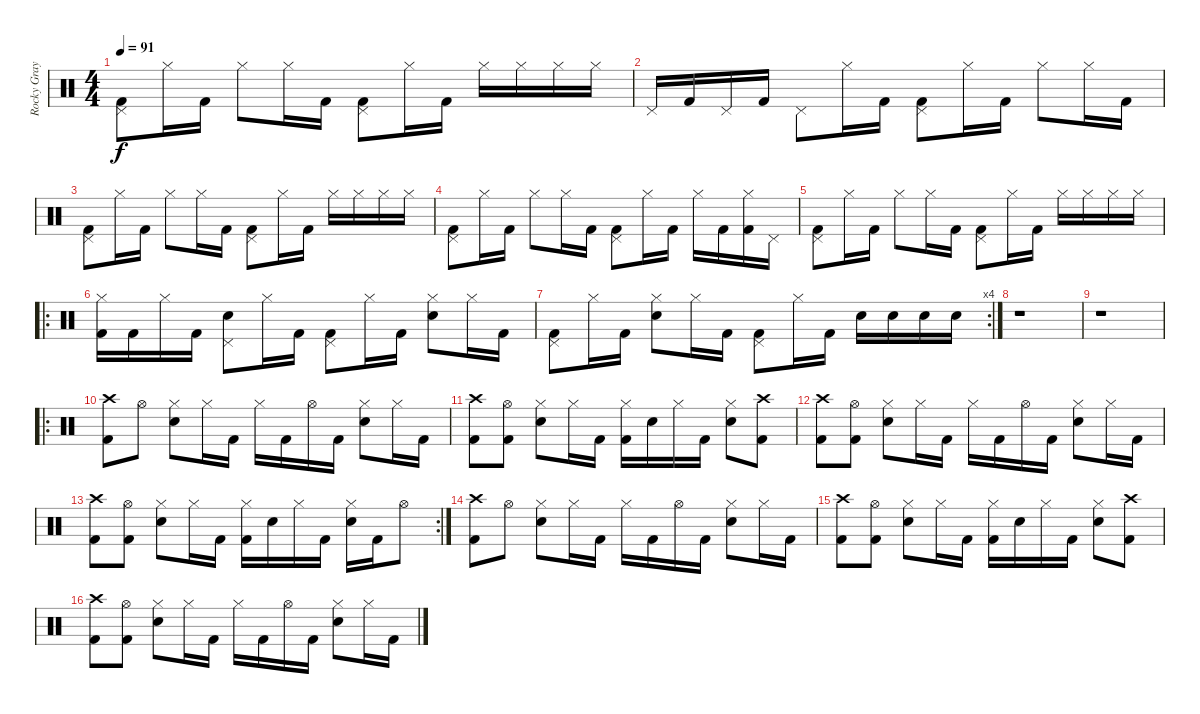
\track ("Rocky Gray (Drums)" "Rocky Gray") {instrument percussion}
\staff {score}
\articulation defaults
\ts (4 4)
\tempo 91
\clef neutral
\ks c
("Pedal Hi-Hat (hit)" "Kick (hit) 2").8{dy f} "Hi-Hat (closed)".16 "Kick (hit) 2".16 "Hi-Hat (closed)".8 "Hi-Hat (closed)".16 "Kick (hit) 2".16 ("Pedal Hi-Hat (hit)" "Kick (hit) 2").8 "Hi-Hat (closed)".16 "Kick (hit) 2".16 "Hi-Hat (closed)".16 "Hi-Hat (closed)".16 "Hi-Hat (closed)".16 "Hi-Hat (closed)".16 |
"Pedal Hi-Hat (hit)".16 "Kick (hit) 2".16 "Pedal Hi-Hat (hit)".16 "Kick (hit) 2".16 "Pedal Hi-Hat (hit)".8 "Hi-Hat (closed)".16 "Kick (hit) 2".16 ("Pedal Hi-Hat (hit)" "Kick (hit) 2").8 "Hi-Hat (closed)".16 "Kick (hit) 2".16 "Hi-Hat (closed)".8 "Hi-Hat (closed)".16 "Kick (hit) 2".16 |
("Pedal Hi-Hat (hit)" "Kick (hit) 2").8 "Hi-Hat (closed)".16 "Kick (hit) 2".16 "Hi-Hat (closed)".8 "Hi-Hat (closed)".16 "Kick (hit) 2".16 ("Pedal Hi-Hat (hit)" "Kick (hit) 2").8 "Hi-Hat (closed)".16 "Kick (hit) 2".16 "Hi-Hat (closed)".16 "Hi-Hat (closed)".16 "Hi-Hat (closed)".16 "Hi-Hat (closed)".16 |
("Pedal Hi-Hat (hit)" "Kick (hit) 2").8 "Hi-Hat (closed)".16 "Kick (hit) 2".16 "Hi-Hat (closed)".8 "Hi-Hat (closed)".16 "Kick (hit) 2".16 ("Pedal Hi-Hat (hit)" "Kick (hit) 2").8 "Hi-Hat (closed)".16 "Kick (hit) 2".16 "Hi-Hat (closed)".16 "Kick (hit) 2".16 ("Hi-Hat (closed)" "Kick (hit) 2").16 "Pedal Hi-Hat (hit)".16 |
("Pedal Hi-Hat (hit)" "Kick (hit) 2").8 "Hi-Hat (closed)".16 "Kick (hit) 2".16 "Hi-Hat (closed)".8 "Hi-Hat (closed)".16 "Kick (hit) 2".16 ("Pedal Hi-Hat (hit)" "Kick (hit) 2").8 "Hi-Hat (closed)".16 "Kick (hit) 2".16 "Hi-Hat (closed)".16 "Hi-Hat (closed)".16 "Hi-Hat (closed)".16 "Hi-Hat (closed)".16 |
\ro
("Hi-Hat (closed)" "Kick (hit) 2").16 "Kick (hit) 2".16 "Hi-Hat (closed)".16 "Kick (hit) 2".16 ("Pedal Hi-Hat (hit)" "Electric Snare (hit)").8 "Hi-Hat (closed)".16 "Kick (hit) 2".16 ("Pedal Hi-Hat (hit)" "Kick (hit) 2").8 "Hi-Hat (closed)".16 "Kick (hit) 2".16 ("Hi-Hat (closed)" "Electric Snare (hit)").8 "Hi-Hat (closed)".16 "Kick (hit) 2".16 |
\rc 4
("Pedal Hi-Hat (hit)" "Kick (hit) 2").8 "Hi-Hat (closed)".16 "Kick (hit) 2".16 ("Hi-Hat (closed)" "Electric Snare (hit)").8 "Hi-Hat (closed)".16 "Kick (hit) 2".16 ("Pedal Hi-Hat (hit)" "Kick (hit) 2").8 "Hi-Hat (closed)".16 "Kick (hit) 2".16 "Electric Snare (hit)".16 "Electric Snare (hit)".16 "Electric Snare (hit)".16 "Electric Snare (hit)".16 |
r.1 |
r.1 |
\ro
("Crash high (hit)" "Kick (hit) 2").8 "Hi-Hat (open)".8 ("Hi-Hat (closed)" "Electric Snare (hit)").8 "Hi-Hat (closed)".16 "Kick (hit) 2".16 "Hi-Hat (closed)".16 "Kick (hit) 2".16 "Hi-Hat (open)".16 "Kick (hit) 2".16 ("Hi-Hat (closed)" "Electric Snare (hit)").8 "Hi-Hat (closed)".16 "Kick (hit) 2".16 |
("Crash high (hit)" "Kick (hit) 2").8 ("Hi-Hat (open)" "Kick (hit) 2").8 ("Hi-Hat (closed)" "Electric Snare (hit)").8 "Hi-Hat (closed)".16 "Kick (hit) 2".16 ("Hi-Hat (closed)" "Kick (hit) 2").16 "Electric Snare (hit)".16 "Hi-Hat (closed)".16 "Kick (hit) 2".16 ("Hi-Hat (closed)" "Electric Snare (hit)").8 ("Crash high (hit)" "Kick (hit) 2").8 |
("Crash high (hit)" "Kick (hit) 2").8 ("Hi-Hat (open)" "Kick (hit) 2").8 ("Hi-Hat (closed)" "Electric Snare (hit)").8 "Hi-Hat (closed)".16 "Kick (hit) 2".16 "Hi-Hat (closed)".16 "Kick (hit) 2".16 "Hi-Hat (open)".16 "Kick (hit) 2".16 ("Hi-Hat (closed)" "Electric Snare (hit)").8 "Hi-Hat (closed)".16 "Kick (hit) 2".16 |
\rc 2
("Crash high (hit)" "Kick (hit) 2").8 ("Hi-Hat (open)" "Kick (hit) 2").8 ("Hi-Hat (closed)" "Electric Snare (hit)").8 "Hi-Hat (closed)".16 "Kick (hit) 2".16 ("Hi-Hat (closed)" "Kick (hit) 2").16 "Electric Snare (hit)".16 "Hi-Hat (closed)".16 "Kick (hit) 2".16 ("Hi-Hat (closed)" "Electric Snare (hit)").16 "Kick (hit) 2".16 "Hi-Hat (open)".8 |
("Crash high (hit)" "Kick (hit) 2").8 "Hi-Hat (open)".8 ("Hi-Hat (closed)" "Electric Snare (hit)").8 "Hi-Hat (closed)".16 "Kick (hit) 2".16 "Hi-Hat (closed)".16 "Kick (hit) 2".16 "Hi-Hat (open)".16 "Kick (hit) 2".16 ("Hi-Hat (closed)" "Electric Snare (hit)").8 "Hi-Hat (closed)".16 "Kick (hit) 2".16 |
("Crash high (hit)" "Kick (hit) 2").8 ("Hi-Hat (open)" "Kick (hit) 2").8 ("Hi-Hat (closed)" "Electric Snare (hit)").8 "Hi-Hat (closed)".16 "Kick (hit) 2".16 ("Hi-Hat (closed)" "Kick (hit) 2").16 "Electric Snare (hit)".16 "Hi-Hat (closed)".16 "Kick (hit) 2".16 ("Hi-Hat (closed)" "Electric Snare (hit)").8 ("Crash high (hit)" "Kick (hit) 2").8 |
("Crash high (hit)" "Kick (hit) 2").8 ("Hi-Hat (open)" "Kick (hit) 2").8 ("Hi-Hat (closed)" "Electric Snare (hit)").8 "Hi-Hat (closed)".16 "Kick (hit) 2".16 "Hi-Hat (closed)".16 "Kick (hit) 2".16 "Hi-Hat (open)".16 "Kick (hit) 2".16 ("Hi-Hat (closed)" "Electric Snare (hit)").8 "Hi-Hat (closed)".16 "Kick (hit) 2".16
